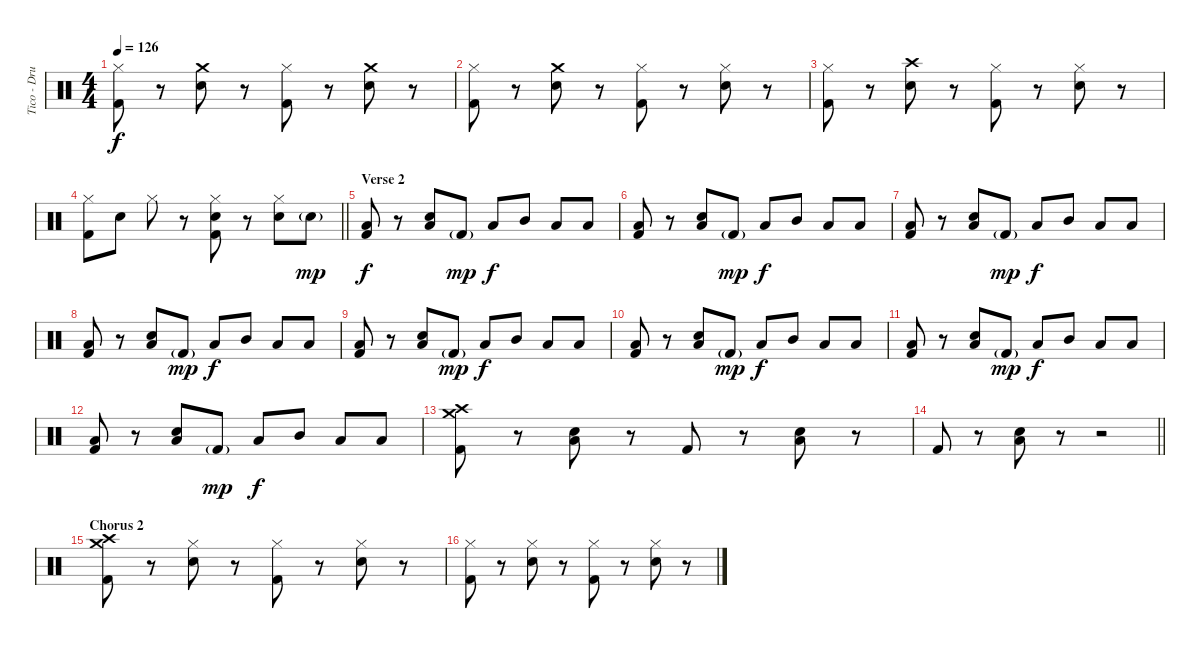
\track ("Tico - Drums" "Tico - Dru") {instrument percussion}
\staff {score}
\articulation defaults
\ts (4 4)
\tempo 126
\clef neutral
\ks c
("Hi-Hat (closed)" "Kick (hit) 2").8{dy f} r.8 ("Snare (hit) 2" "Crash medium (hit)").8 r.8 ("Hi-Hat (closed)" "Kick (hit) 2").8 r.8 ("Snare (hit) 2" "Crash medium (hit)").8 r.8 |
("Hi-Hat (closed)" "Kick (hit) 2").8 r.8 ("Snare (hit) 2" "Crash medium (hit)").8 r.8 ("Hi-Hat (closed)" "Kick (hit) 2").8 r.8 ("Hi-Hat (closed)" "Snare (hit) 2").8 r.8 |
("Hi-Hat (closed)" "Kick (hit) 2").8 r.8 ("Snare (hit) 2" "Crash high (hit)").8 r.8 ("Hi-Hat (closed)" "Kick (hit) 2").8 r.8 ("Hi-Hat (closed)" "Snare (hit) 2").8 r.8 |
\barLineRight lightlight
("Hi-Hat (closed)" "Kick (hit) 2").8 "Snare (hit) 2".8 "Hi-Hat (closed)".8 r.8 ("Hi-Hat (closed)" "Snare (hit) 2" "Kick (hit) 2").8 r.8 ("Hi-Hat (closed)" "Snare (hit) 2").8 "Snare (hit) 2"{g}.8{dy mp} |
\section ("" "Verse 2")
("Low Floor Tom (hit)" "Kick (hit) 2").8{dy f} r.8 ("Snare (hit) 2" "Low Floor Tom (hit)").8 "Kick (hit) 2"{g}.8{dy mp} "Low Floor Tom (hit)".8{dy f} "Mid Tom (hit)".8 "Low Floor Tom (hit)".8 "Low Tom (hit)".8 |
("Low Floor Tom (hit)" "Kick (hit) 2").8 r.8 ("Snare (hit) 2" "Low Floor Tom (hit)").8 "Kick (hit) 2"{g}.8{dy mp} "Low Floor Tom (hit)".8{dy f} "Mid Tom (hit)".8 "Low Floor Tom (hit)".8 "Low Tom (hit)".8 |
("Low Floor Tom (hit)" "Kick (hit) 2").8 r.8 ("Snare (hit) 2" "Low Floor Tom (hit)").8 "Kick (hit) 2"{g}.8{dy mp} "Low Floor Tom (hit)".8{dy f} "Mid Tom (hit)".8 "Low Floor Tom (hit)".8 "Low Tom (hit)".8 |
("Low Floor Tom (hit)" "Kick (hit) 2").8 r.8 ("Snare (hit) 2" "Low Floor Tom (hit)").8 "Kick (hit) 2"{g}.8{dy mp} "Low Floor Tom (hit)".8{dy f} "Mid Tom (hit)".8 "Low Floor Tom (hit)".8 "Low Tom (hit)".8 |
("Low Floor Tom (hit)" "Kick (hit) 2").8 r.8 ("Snare (hit) 2" "Low Floor Tom (hit)").8 "Kick (hit) 2"{g}.8{dy mp} "Low Floor Tom (hit)".8{dy f} "Mid Tom (hit)".8 "Low Floor Tom (hit)".8 "Low Tom (hit)".8 |
("Low Floor Tom (hit)" "Kick (hit) 2").8 r.8 ("Snare (hit) 2" "Low Floor Tom (hit)").8 "Kick (hit) 2"{g}.8{dy mp} "Low Floor Tom (hit)".8{dy f} "Mid Tom (hit)".8 "Low Floor Tom (hit)".8 "Low Tom (hit)".8 |
("Low Floor Tom (hit)" "Kick (hit) 2").8 r.8 ("Snare (hit) 2" "Low Floor Tom (hit)").8 "Kick (hit) 2"{g}.8{dy mp} "Low Floor Tom (hit)".8{dy f} "Mid Tom (hit)".8 "Low Floor Tom (hit)".8 "Low Tom (hit)".8 |
("Low Floor Tom (hit)" "Kick (hit) 2").8 r.8 ("Snare (hit) 2" "Low Floor Tom (hit)").8 "Kick (hit) 2"{g}.8{dy mp} "Low Floor Tom (hit)".8{dy f} "Mid Tom (hit)".8 "Low Floor Tom (hit)".8 "Low Tom (hit)".8 |
("Crash medium (hit)" "Kick (hit) 2" "Crash high (hit)").8 r.8 ("Low Floor Tom (hit)" "Snare (hit) 2").8 r.8 "Kick (hit) 2".8 r.8 ("Low Floor Tom (hit)" "Snare (hit) 2").8 r.8 |
\barLineRight lightlight "Kick (hit) 2".8
r.8 ("Low Floor Tom (hit)" "Snare (hit) 2").8 r.8 r.2 |
\section ("" "Chorus 2")
("Crash medium (hit)" "Kick (hit) 2" "Crash high (hit)").8 r.8 ("Hi-Hat (closed)" "Snare (hit) 2").8 r.8 ("Hi-Hat (closed)" "Kick (hit) 2").8 r.8 ("Hi-Hat (closed)" "Snare (hit) 2").8 r.8 |
("Hi-Hat (closed)" "Kick (hit) 2").8 r.8 ("Hi-Hat (closed)" "Snare (hit) 2").8 r.8 ("Hi-Hat (closed)" "Kick (hit) 2").8 r.8 ("Hi-Hat (closed)" "Snare (hit) 2").8 r.8
